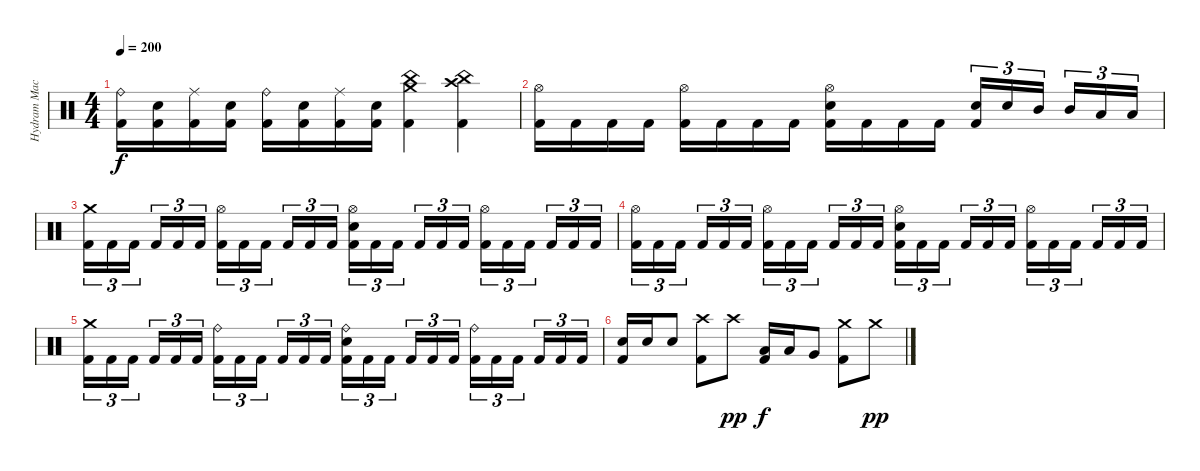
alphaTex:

\track ("Hydram Machine" "Hydram Mac") {instrument percussion}
\staff {score}
\articulation defaults
\ts (4 4)
\tempo 200
\clef neutral
\ks c
("Ride (bell)" "Kick (hit) 2").16{dy f} ("Electric Snare (hit)" "Kick (hit) 2").16 ("Ride (middle)" "Kick (hit) 2").16 ("Electric Snare (hit)" "Kick (hit) 2").16 ("Ride (bell)" "Kick (hit) 2").16 ("Electric Snare (hit)" "Kick (hit) 2").16 ("Ride (middle)" "Kick (hit) 2").16 ("Electric Snare (hit)" "Kick (hit) 2").16 ("China (hit)" "Crash medium (hit)" "Kick (hit) 2").4 ("China (hit)" "Crash high (hit)" "Kick (hit) 2").4 |
("Hi-Hat (open)" "Kick (hit) 2").16 "Kick (hit) 2".16 "Kick (hit) 2".16 "Kick (hit) 2".16 ("Hi-Hat (open)" "Kick (hit) 2").16 "Kick (hit) 2".16 "Kick (hit) 2".16 "Kick (hit) 2".16 ("Hi-Hat (open)" "Electric Snare (hit)" "Kick (hit) 2").16 "Kick (hit) 2".16 "Kick (hit) 2".16 "Kick (hit) 2".16 ("Electric Snare (hit)" "Kick (hit) 2").16{tu (3 2)} "Electric Snare (hit)".16{tu (3 2)} "Mid Tom (hit)".16{tu (3 2) beam splitsecondary} "Mid Tom (hit)".16{tu (3 2)} "Low Tom (hit)".16{tu (3 2)} "Low Tom (hit)".16{tu (3 2)} |
("Crash medium (hit)" "Kick (hit) 2").16{tu (3 2)} "Kick (hit) 2".16{tu (3 2)} "Kick (hit) 2".16{tu (3 2) beam splitsecondary} "Kick (hit) 2".16{tu (3 2)} "Kick (hit) 2".16{tu (3 2)} "Kick (hit) 2".16{tu (3 2)} ("Hi-Hat (open)" "Kick (hit) 2").16{tu (3 2)} "Kick (hit) 2".16{tu (3 2)} "Kick (hit) 2".16{tu (3 2) beam splitsecondary} "Kick (hit) 2".16{tu (3 2)} "Kick (hit) 2".16{tu (3 2)} "Kick (hit) 2".16{tu (3 2)} ("Hi-Hat (open)" "Electric Snare (hit)" "Kick (hit) 2").16{tu (3 2)} "Kick (hit) 2".16{tu (3 2)} "Kick (hit) 2".16{tu (3 2) beam splitsecondary} "Kick (hit) 2".16{tu (3 2)} "Kick (hit) 2".16{tu (3 2)} "Kick (hit) 2".16{tu (3 2)} ("Hi-Hat (open)" "Kick (hit) 2").16{tu (3 2)} "Kick (hit) 2".16{tu (3 2)} "Kick (hit) 2".16{tu (3 2) beam splitsecondary} "Kick (hit) 2".16{tu (3 2)} "Kick (hit) 2".16{tu (3 2)} "Kick (hit) 2".16{tu (3 2)} |
("Hi-Hat (open)" "Kick (hit) 2").16{tu (3 2)} "Kick (hit) 2".16{tu (3 2)} "Kick (hit) 2".16{tu (3 2) beam splitsecondary} "Kick (hit) 2".16{tu (3 2)} "Kick (hit) 2".16{tu (3 2)} "Kick (hit) 2".16{tu (3 2)} ("Hi-Hat (open)" "Kick (hit) 2").16{tu (3 2)} "Kick (hit) 2".16{tu (3 2)} "Kick (hit) 2".16{tu (3 2) beam splitsecondary} "Kick (hit) 2".16{tu (3 2)} "Kick (hit) 2".16{tu (3 2)} "Kick (hit) 2".16{tu (3 2)} ("Hi-Hat (open)" "Electric Snare (hit)" "Kick (hit) 2").16{tu (3 2)} "Kick (hit) 2".16{tu (3 2)} "Kick (hit) 2".16{tu (3 2) beam splitsecondary} "Kick (hit) 2".16{tu (3 2)} "Kick (hit) 2".16{tu (3 2)} "Kick (hit) 2".16{tu (3 2)} ("Hi-Hat (open)" "Kick (hit) 2").16{tu (3 2)} "Kick (hit) 2".16{tu (3 2)} "Kick (hit) 2".16{tu (3 2) beam splitsecondary} "Kick (hit) 2".16{tu (3 2)} "Kick (hit) 2".16{tu (3 2)} "Kick (hit) 2".16{tu (3 2)} |
("Crash medium (hit)" "Kick (hit) 2").16{tu (3 2)} "Kick (hit) 2".16{tu (3 2)} "Kick (hit) 2".16{tu (3 2) beam splitsecondary} "Kick (hit) 2".16{tu (3 2)} "Kick (hit) 2".16{tu (3 2)} "Kick (hit) 2".16{tu (3 2)} ("Ride (bell)" "Kick (hit) 2").16{tu (3 2)} "Kick (hit) 2".16{tu (3 2)} "Kick (hit) 2".16{tu (3 2) beam splitsecondary} "Kick (hit) 2".16{tu (3 2)} "Kick (hit) 2".16{tu (3 2)} "Kick (hit) 2".16{tu (3 2)} ("Ride (bell)" "Electric Snare (hit)" "Kick (hit) 2").16{tu (3 2)} "Kick (hit) 2".16{tu (3 2)} "Kick (hit) 2".16{tu (3 2) beam splitsecondary} "Kick (hit) 2".16{tu (3 2)} "Kick (hit) 2".16{tu (3 2)} "Kick (hit) 2".16{tu (3 2)} ("Ride (bell)" "Kick (hit) 2").16{tu (3 2)} "Kick (hit) 2".16{tu (3 2)} "Kick (hit) 2".16{tu (3 2) beam splitsecondary} "Kick (hit) 2".16{tu (3 2)} "Kick (hit) 2".16{tu (3 2)} "Kick (hit) 2".16{tu (3 2)} |
("Electric Snare (hit)" "Kick (hit) 2").16 "Electric Snare (hit)".16 "Electric Snare (hit)".8 ("Crash high (hit)" "Kick (hit) 2").8 "Crash high (hit)".8{dy pp} ("Low Tom (hit)" "Kick (hit) 2").16{dy f} "Low Tom (hit)".16 "Very Low Tom (hit)".8 ("Crash medium (hit)" "Kick (hit) 2").8 "Crash medium (hit)".8{dy pp}
